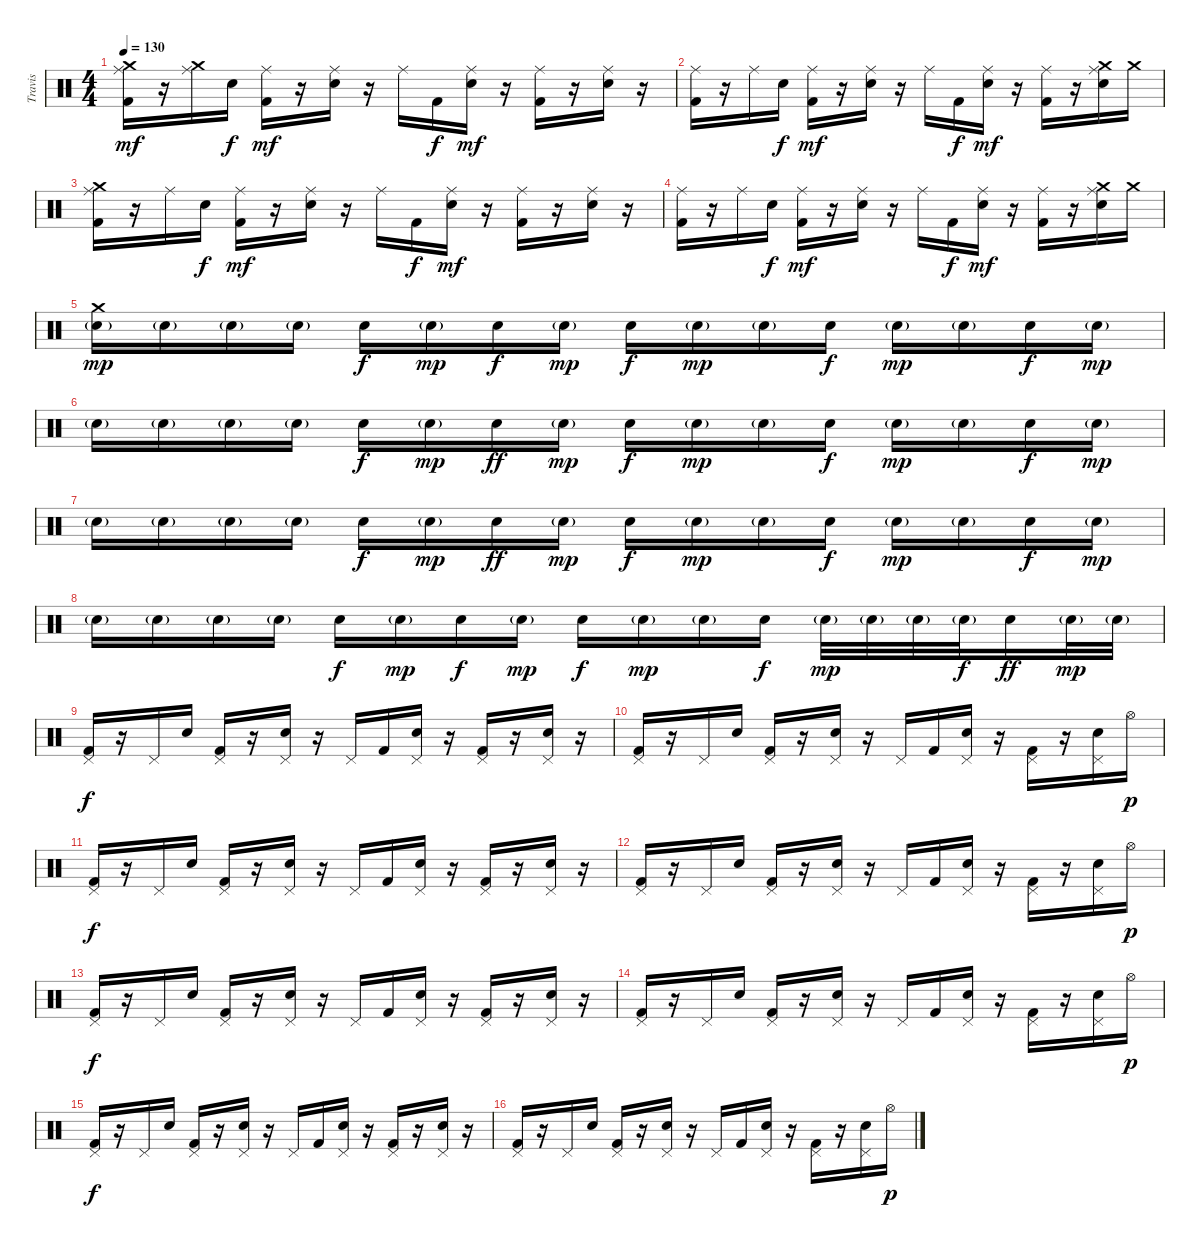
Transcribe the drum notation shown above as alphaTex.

\track ("Travis" "Travis") {instrument percussion}
\staff {score}
\articulation defaults
\ts (4 4)
\tempo 130
\clef neutral
\ks c
("Crash medium (hit)" "Ride (middle)" "Kick (hit) 2").16{dy mf} r.16 ("Crash medium (hit)" "Ride (middle)").16 "Electric Snare (hit)".16{dy f} ("Ride (middle)" "Kick (hit) 2").16{dy mf} r.16 ("Ride (middle)" "Electric Snare (hit)").16 r.16 "Ride (middle)".16 "Kick (hit) 2".16{dy f} ("Ride (middle)" "Electric Snare (hit)").16{dy mf} r.16 ("Ride (middle)" "Kick (hit) 2").16 r.16 ("Ride (middle)" "Electric Snare (hit)").16 r.16 |
("Ride (middle)" "Kick (hit) 2").16 r.16 "Ride (middle)".16 "Electric Snare (hit)".16{dy f} ("Ride (middle)" "Kick (hit) 2").16{dy mf} r.16 ("Ride (middle)" "Electric Snare (hit)").16 r.16 "Ride (middle)".16 "Kick (hit) 2".16{dy f} ("Ride (middle)" "Electric Snare (hit)").16{dy mf} r.16 ("Ride (middle)" "Kick (hit) 2").16 r.16 ("Crash medium (hit)" "Ride (middle)" "Electric Snare (hit)").16 "Crash medium (hit)".16 |
("Crash medium (hit)" "Ride (middle)" "Kick (hit) 2").16 r.16 "Ride (middle)".16 "Electric Snare (hit)".16{dy f} ("Ride (middle)" "Kick (hit) 2").16{dy mf} r.16 ("Ride (middle)" "Electric Snare (hit)").16 r.16 "Ride (middle)".16 "Kick (hit) 2".16{dy f} ("Ride (middle)" "Electric Snare (hit)").16{dy mf} r.16 ("Ride (middle)" "Kick (hit) 2").16 r.16 ("Ride (middle)" "Electric Snare (hit)").16 r.16 |
("Ride (middle)" "Kick (hit) 2").16 r.16 "Ride (middle)".16 "Electric Snare (hit)".16{dy f} ("Ride (middle)" "Kick (hit) 2").16{dy mf} r.16 ("Ride (middle)" "Electric Snare (hit)").16 r.16 "Ride (middle)".16 "Kick (hit) 2".16{dy f} ("Ride (middle)" "Electric Snare (hit)").16{dy mf} r.16 ("Ride (middle)" "Kick (hit) 2").16 r.16 ("Crash medium (hit)" "Ride (middle)" "Electric Snare (hit)").16 "Crash medium (hit)".16 |
("Crash medium (hit)" "Electric Snare (hit)"{g}).16{dy mp} "Electric Snare (hit)"{g}.16 "Electric Snare (hit)"{g}.16 "Electric Snare (hit)"{g}.16 "Electric Snare (hit)".16{dy f} "Electric Snare (hit)"{g}.16{dy mp} "Electric Snare (hit)".16{dy f} "Electric Snare (hit)"{g}.16{dy mp} "Electric Snare (hit)".16{dy f} "Electric Snare (hit)"{g}.16{dy mp} "Electric Snare (hit)"{g}.16 "Electric Snare (hit)".16{dy f} "Electric Snare (hit)"{g}.16{dy mp} "Electric Snare (hit)"{g}.16 "Electric Snare (hit)".16{dy f} "Electric Snare (hit)"{g}.16{dy mp} |
"Electric Snare (hit)"{g}.16 "Electric Snare (hit)"{g}.16 "Electric Snare (hit)"{g}.16 "Electric Snare (hit)"{g}.16 "Electric Snare (hit)".16{dy f} "Electric Snare (hit)"{g}.16{dy mp} "Electric Snare (hit)".16{dy ff} "Electric Snare (hit)"{g}.16{dy mp} "Electric Snare (hit)".16{dy f} "Electric Snare (hit)"{g}.16{dy mp} "Electric Snare (hit)"{g}.16 "Electric Snare (hit)".16{dy f} "Electric Snare (hit)"{g}.16{dy mp} "Electric Snare (hit)"{g}.16 "Electric Snare (hit)".16{dy f} "Electric Snare (hit)"{g}.16{dy mp} |
"Electric Snare (hit)"{g}.16 "Electric Snare (hit)"{g}.16 "Electric Snare (hit)"{g}.16 "Electric Snare (hit)"{g}.16 "Electric Snare (hit)".16{dy f} "Electric Snare (hit)"{g}.16{dy mp} "Electric Snare (hit)".16{dy ff} "Electric Snare (hit)"{g}.16{dy mp} "Electric Snare (hit)".16{dy f} "Electric Snare (hit)"{g}.16{dy mp} "Electric Snare (hit)"{g}.16 "Electric Snare (hit)".16{dy f} "Electric Snare (hit)"{g}.16{dy mp} "Electric Snare (hit)"{g}.16 "Electric Snare (hit)".16{dy f} "Electric Snare (hit)"{g}.16{dy mp} |
"Electric Snare (hit)"{g}.16 "Electric Snare (hit)"{g}.16 "Electric Snare (hit)"{g}.16 "Electric Snare (hit)"{g}.16 "Electric Snare (hit)".16{dy f} "Electric Snare (hit)"{g}.16{dy mp} "Electric Snare (hit)".16{dy f} "Electric Snare (hit)"{g}.16{dy mp} "Electric Snare (hit)".16{dy f} "Electric Snare (hit)"{g}.16{dy mp} "Electric Snare (hit)"{g}.16 "Electric Snare (hit)".16{dy f} "Electric Snare (hit)"{g}.32{dy mp} "Electric Snare (hit)"{g}.32 "Electric Snare (hit)"{g}.32 "Electric Snare (hit)"{g}.32{dy f} "Electric Snare (hit)".16{dy ff} "Electric Snare (hit)"{g}.32{dy mp} "Electric Snare (hit)"{g}.32 |
("Pedal Hi-Hat (hit)" "Kick (hit) 2").16{dy f} r.16 "Pedal Hi-Hat (hit)".16 "Electric Snare (hit)".16 ("Pedal Hi-Hat (hit)" "Kick (hit) 2").16 r.16 ("Pedal Hi-Hat (hit)" "Electric Snare (hit)").16 r.16 "Pedal Hi-Hat (hit)".16 "Kick (hit) 2".16 ("Pedal Hi-Hat (hit)" "Electric Snare (hit)").16 r.16 ("Pedal Hi-Hat (hit)" "Kick (hit) 2").16 r.16 ("Pedal Hi-Hat (hit)" "Electric Snare (hit)").16 r.16 |
("Pedal Hi-Hat (hit)" "Kick (hit) 2").16 r.16 "Pedal Hi-Hat (hit)".16 "Electric Snare (hit)".16 ("Pedal Hi-Hat (hit)" "Kick (hit) 2").16 r.16 ("Pedal Hi-Hat (hit)" "Electric Snare (hit)").16 r.16 "Pedal Hi-Hat (hit)".16 "Kick (hit) 2".16 ("Pedal Hi-Hat (hit)" "Electric Snare (hit)").16 r.16 ("Pedal Hi-Hat (hit)" "Kick (hit) 2").16 r.16 ("Pedal Hi-Hat (hit)" "Electric Snare (hit)").16 "Hi-Hat (open)".16{dy p} |
("Pedal Hi-Hat (hit)" "Kick (hit) 2").16{dy f} r.16 "Pedal Hi-Hat (hit)".16 "Electric Snare (hit)".16 ("Pedal Hi-Hat (hit)" "Kick (hit) 2").16 r.16 ("Pedal Hi-Hat (hit)" "Electric Snare (hit)").16 r.16 "Pedal Hi-Hat (hit)".16 "Kick (hit) 2".16 ("Pedal Hi-Hat (hit)" "Electric Snare (hit)").16 r.16 ("Pedal Hi-Hat (hit)" "Kick (hit) 2").16 r.16 ("Pedal Hi-Hat (hit)" "Electric Snare (hit)").16 r.16 |
("Pedal Hi-Hat (hit)" "Kick (hit) 2").16 r.16 "Pedal Hi-Hat (hit)".16 "Electric Snare (hit)".16 ("Pedal Hi-Hat (hit)" "Kick (hit) 2").16 r.16 ("Pedal Hi-Hat (hit)" "Electric Snare (hit)").16 r.16 "Pedal Hi-Hat (hit)".16 "Kick (hit) 2".16 ("Pedal Hi-Hat (hit)" "Electric Snare (hit)").16 r.16 ("Pedal Hi-Hat (hit)" "Kick (hit) 2").16 r.16 ("Pedal Hi-Hat (hit)" "Electric Snare (hit)").16 "Hi-Hat (open)".16{dy p} |
("Pedal Hi-Hat (hit)" "Kick (hit) 2").16{dy f} r.16 "Pedal Hi-Hat (hit)".16 "Electric Snare (hit)".16 ("Pedal Hi-Hat (hit)" "Kick (hit) 2").16 r.16 ("Pedal Hi-Hat (hit)" "Electric Snare (hit)").16 r.16 "Pedal Hi-Hat (hit)".16 "Kick (hit) 2".16 ("Pedal Hi-Hat (hit)" "Electric Snare (hit)").16 r.16 ("Pedal Hi-Hat (hit)" "Kick (hit) 2").16 r.16 ("Pedal Hi-Hat (hit)" "Electric Snare (hit)").16 r.16 |
("Pedal Hi-Hat (hit)" "Kick (hit) 2").16 r.16 "Pedal Hi-Hat (hit)".16 "Electric Snare (hit)".16 ("Pedal Hi-Hat (hit)" "Kick (hit) 2").16 r.16 ("Pedal Hi-Hat (hit)" "Electric Snare (hit)").16 r.16 "Pedal Hi-Hat (hit)".16 "Kick (hit) 2".16 ("Pedal Hi-Hat (hit)" "Electric Snare (hit)").16 r.16 ("Pedal Hi-Hat (hit)" "Kick (hit) 2").16 r.16 ("Pedal Hi-Hat (hit)" "Electric Snare (hit)").16 "Hi-Hat (open)".16{dy p} |
("Pedal Hi-Hat (hit)" "Kick (hit) 2").16{dy f} r.16 "Pedal Hi-Hat (hit)".16 "Electric Snare (hit)".16 ("Pedal Hi-Hat (hit)" "Kick (hit) 2").16 r.16 ("Pedal Hi-Hat (hit)" "Electric Snare (hit)").16 r.16 "Pedal Hi-Hat (hit)".16 "Kick (hit) 2".16 ("Pedal Hi-Hat (hit)" "Electric Snare (hit)").16 r.16 ("Pedal Hi-Hat (hit)" "Kick (hit) 2").16 r.16 ("Pedal Hi-Hat (hit)" "Electric Snare (hit)").16 r.16 |
("Pedal Hi-Hat (hit)" "Kick (hit) 2").16 r.16 "Pedal Hi-Hat (hit)".16 "Electric Snare (hit)".16 ("Pedal Hi-Hat (hit)" "Kick (hit) 2").16 r.16 ("Pedal Hi-Hat (hit)" "Electric Snare (hit)").16 r.16 "Pedal Hi-Hat (hit)".16 "Kick (hit) 2".16 ("Pedal Hi-Hat (hit)" "Electric Snare (hit)").16 r.16 ("Pedal Hi-Hat (hit)" "Kick (hit) 2").16 r.16 ("Pedal Hi-Hat (hit)" "Electric Snare (hit)").16 "Hi-Hat (open)".16{dy p}
